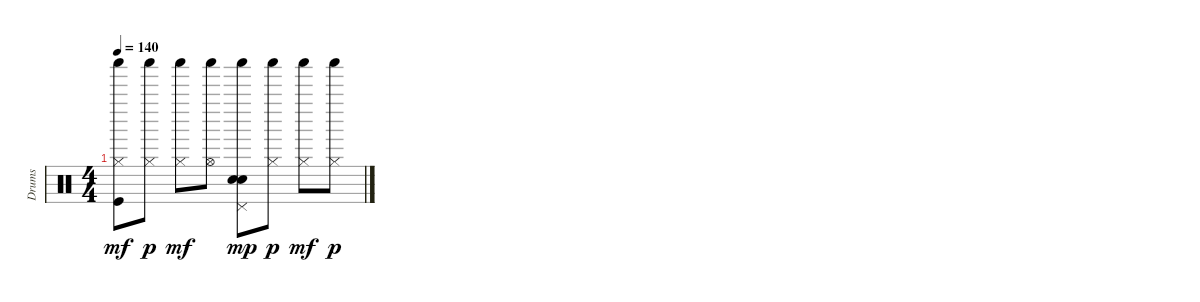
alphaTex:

\track ("Drums" "Drums") {instrument percussion}
\staff {score}
\articulation defaults
\ts (4 4)
\tempo 140
\clef neutral
\ks c
("Shaker (hit)" "Hi-Hat (closed)" "Kick (hit)").8{dy mf} ("Shaker (hit)" "Hi-Hat (closed)").8{dy p} ("Shaker (hit)" "Hi-Hat (closed)").8{dy mf} ("Shaker (hit)" "Hi-Hat (open)").8 ("Shaker (hit)" "Pedal Hi-Hat (hit)" "Hand Clap (hit)" "Snare (hit) 2").8{dy mp} ("Shaker (hit)" "Hi-Hat (closed)").8{dy p} ("Shaker (hit)" "Hi-Hat (closed)").8{dy mf} ("Shaker (hit)" "Hi-Hat (closed)").8{dy p}
